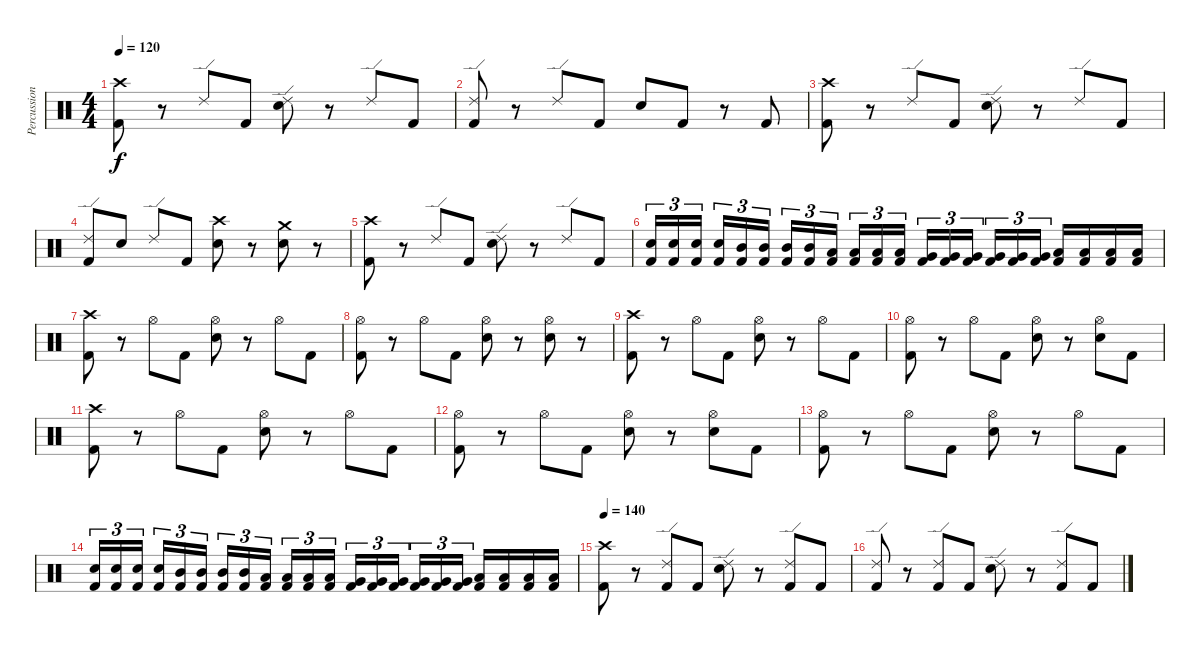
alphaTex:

\track ("Percussion" "Percussion") {instrument percussion}
\staff {score}
\articulation defaults
\ts (4 4)
\tempo 120
\clef neutral
\ks c
("Crash high (hit)" "Kick (hit) 2").8{dy f} r.8 "Ride (edge) 2".8 "Kick (hit) 2".8 ("Ride (edge) 2" "Snare (hit) 2").8 r.8 "Ride (edge) 2".8 "Kick (hit) 2".8 |
("Ride (edge) 2" "Kick (hit) 2").8 r.8 "Ride (edge) 2".8 "Kick (hit) 2".8 "Snare (hit) 2".8 "Kick (hit) 2".8 r.8 "Kick (hit) 2".8 |
("Crash high (hit)" "Kick (hit) 2").8 r.8 "Ride (edge) 2".8 "Kick (hit) 2".8 ("Ride (edge) 2" "Snare (hit) 2").8 r.8 "Ride (edge) 2".8 "Kick (hit) 2".8 |
("Ride (edge) 2" "Kick (hit) 2").8 "Snare (hit) 2".8 "Ride (edge) 2".8 "Kick (hit) 2".8 ("Crash high (hit)" "Snare (hit) 2").8 r.8 ("Crash medium (hit)" "Snare (hit) 2").8 r.8 |
("Crash high (hit)" "Kick (hit) 2").8 r.8 "Ride (edge) 2".8 "Kick (hit) 2".8 ("Ride (edge) 2" "Snare (hit) 2").8 r.8 "Ride (edge) 2".8 "Kick (hit) 2".8 |
("Snare (hit) 2" "Kick (hit) 2").16{tu (3 2)} ("Snare (hit) 2" "Kick (hit) 2").16{tu (3 2)} ("Snare (hit) 2" "Kick (hit) 2").16{tu (3 2)} ("Snare (hit) 2" "Kick (hit) 2").16{tu (3 2)} ("Mid Tom (hit)" "Kick (hit) 2").16{tu (3 2)} ("Mid Tom (hit)" "Kick (hit) 2").16{tu (3 2)} ("Mid Tom (hit)" "Kick (hit) 2").16{tu (3 2)} ("Mid Tom (hit)" "Kick (hit) 2").16{tu (3 2)} ("Low Tom (hit)" "Kick (hit) 2").16{tu (3 2)} ("Low Tom (hit)" "Kick (hit) 2").16{tu (3 2)} ("Low Tom (hit)" "Kick (hit) 2").16{tu (3 2)} ("Low Tom (hit)" "Kick (hit) 2").16{tu (3 2)} ("Very Low Tom (hit)" "Kick (hit) 2").16{tu (3 2)} ("Very Low Tom (hit)" "Kick (hit) 2").16{tu (3 2)} ("Very Low Tom (hit)" "Kick (hit) 2").16{tu (3 2)} ("Very Low Tom (hit)" "Kick (hit) 2").16{tu (3 2)} ("Very Low Tom (hit)" "Kick (hit) 2").16{tu (3 2)} ("Very Low Tom (hit)" "Kick (hit) 2").16{tu (3 2)} ("Low Floor Tom (hit)" "Kick (hit) 2").16 ("Low Floor Tom (hit)" "Kick (hit) 2").16 ("Low Floor Tom (hit)" "Kick (hit) 2").16 ("Low Floor Tom (hit)" "Kick (hit) 2").16 |
("Crash high (hit)" "Kick (hit) 2").8 r.8 "Hi-Hat (open)".8 "Kick (hit) 2".8 ("Hi-Hat (open)" "Snare (hit) 2").8 r.8 "Hi-Hat (open)".8 "Kick (hit) 2".8 |
("Hi-Hat (open)" "Kick (hit) 2").8 r.8 "Hi-Hat (open)".8 "Kick (hit) 2".8 ("Hi-Hat (open)" "Snare (hit) 2").8 r.8 ("Hi-Hat (open)" "Snare (hit) 2").8 r.8 |
("Crash high (hit)" "Kick (hit) 2").8 r.8 "Hi-Hat (open)".8 "Kick (hit) 2".8 ("Hi-Hat (open)" "Snare (hit) 2").8 r.8 "Hi-Hat (open)".8 "Kick (hit) 2".8 |
("Hi-Hat (open)" "Kick (hit) 2").8 r.8 "Hi-Hat (open)".8 "Kick (hit) 2".8 ("Hi-Hat (open)" "Snare (hit) 2").8 r.8 ("Hi-Hat (open)" "Snare (hit) 2").8 "Kick (hit) 2".8 |
("Crash high (hit)" "Kick (hit) 2").8 r.8 "Hi-Hat (open)".8 "Kick (hit) 2".8 ("Hi-Hat (open)" "Snare (hit) 2").8 r.8 "Hi-Hat (open)".8 "Kick (hit) 2".8 |
("Hi-Hat (open)" "Kick (hit) 2").8 r.8 "Hi-Hat (open)".8 "Kick (hit) 2".8 ("Hi-Hat (open)" "Snare (hit) 2").8 r.8 ("Hi-Hat (open)" "Snare (hit) 2").8 "Kick (hit) 2".8 |
("Hi-Hat (open)" "Kick (hit) 2").8 r.8 "Hi-Hat (open)".8 "Kick (hit) 2".8 ("Hi-Hat (open)" "Snare (hit) 2").8 r.8 "Hi-Hat (open)".8 "Kick (hit) 2".8 |
("Snare (hit) 2" "Kick (hit) 2").16{tu (3 2)} ("Snare (hit) 2" "Kick (hit) 2").16{tu (3 2)} ("Snare (hit) 2" "Kick (hit) 2").16{tu (3 2)} ("Snare (hit) 2" "Kick (hit) 2").16{tu (3 2)} ("Mid Tom (hit)" "Kick (hit) 2").16{tu (3 2)} ("Mid Tom (hit)" "Kick (hit) 2").16{tu (3 2)} ("Mid Tom (hit)" "Kick (hit) 2").16{tu (3 2)} ("Mid Tom (hit)" "Kick (hit) 2").16{tu (3 2)} ("Low Tom (hit)" "Kick (hit) 2").16{tu (3 2)} ("Low Tom (hit)" "Kick (hit) 2").16{tu (3 2)} ("Low Tom (hit)" "Kick (hit) 2").16{tu (3 2)} ("Low Tom (hit)" "Kick (hit) 2").16{tu (3 2)} ("Very Low Tom (hit)" "Kick (hit) 2").16{tu (3 2)} ("Very Low Tom (hit)" "Kick (hit) 2").16{tu (3 2)} ("Very Low Tom (hit)" "Kick (hit) 2").16{tu (3 2)} ("Very Low Tom (hit)" "Kick (hit) 2").16{tu (3 2)} ("Very Low Tom (hit)" "Kick (hit) 2").16{tu (3 2)} ("Very Low Tom (hit)" "Kick (hit) 2").16{tu (3 2)} ("Low Floor Tom (hit)" "Kick (hit) 2").16 ("Low Floor Tom (hit)" "Kick (hit) 2").16 ("Low Floor Tom (hit)" "Kick (hit) 2").16 ("Low Floor Tom (hit)" "Kick (hit) 2").16 |
\tempo 140
("Crash high (hit)" "Kick (hit) 2").8 r.8 ("Ride (edge) 2" "Kick (hit) 2").8 "Kick (hit) 2".8 ("Ride (edge) 2" "Snare (hit) 2").8 r.8 ("Ride (edge) 2" "Kick (hit) 2").8 "Kick (hit) 2".8 |
("Ride (edge) 2" "Kick (hit) 2").8 r.8 ("Ride (edge) 2" "Kick (hit) 2").8 "Kick (hit) 2".8 ("Ride (edge) 2" "Snare (hit) 2").8 r.8 ("Ride (edge) 2" "Kick (hit) 2").8 "Kick (hit) 2".8
